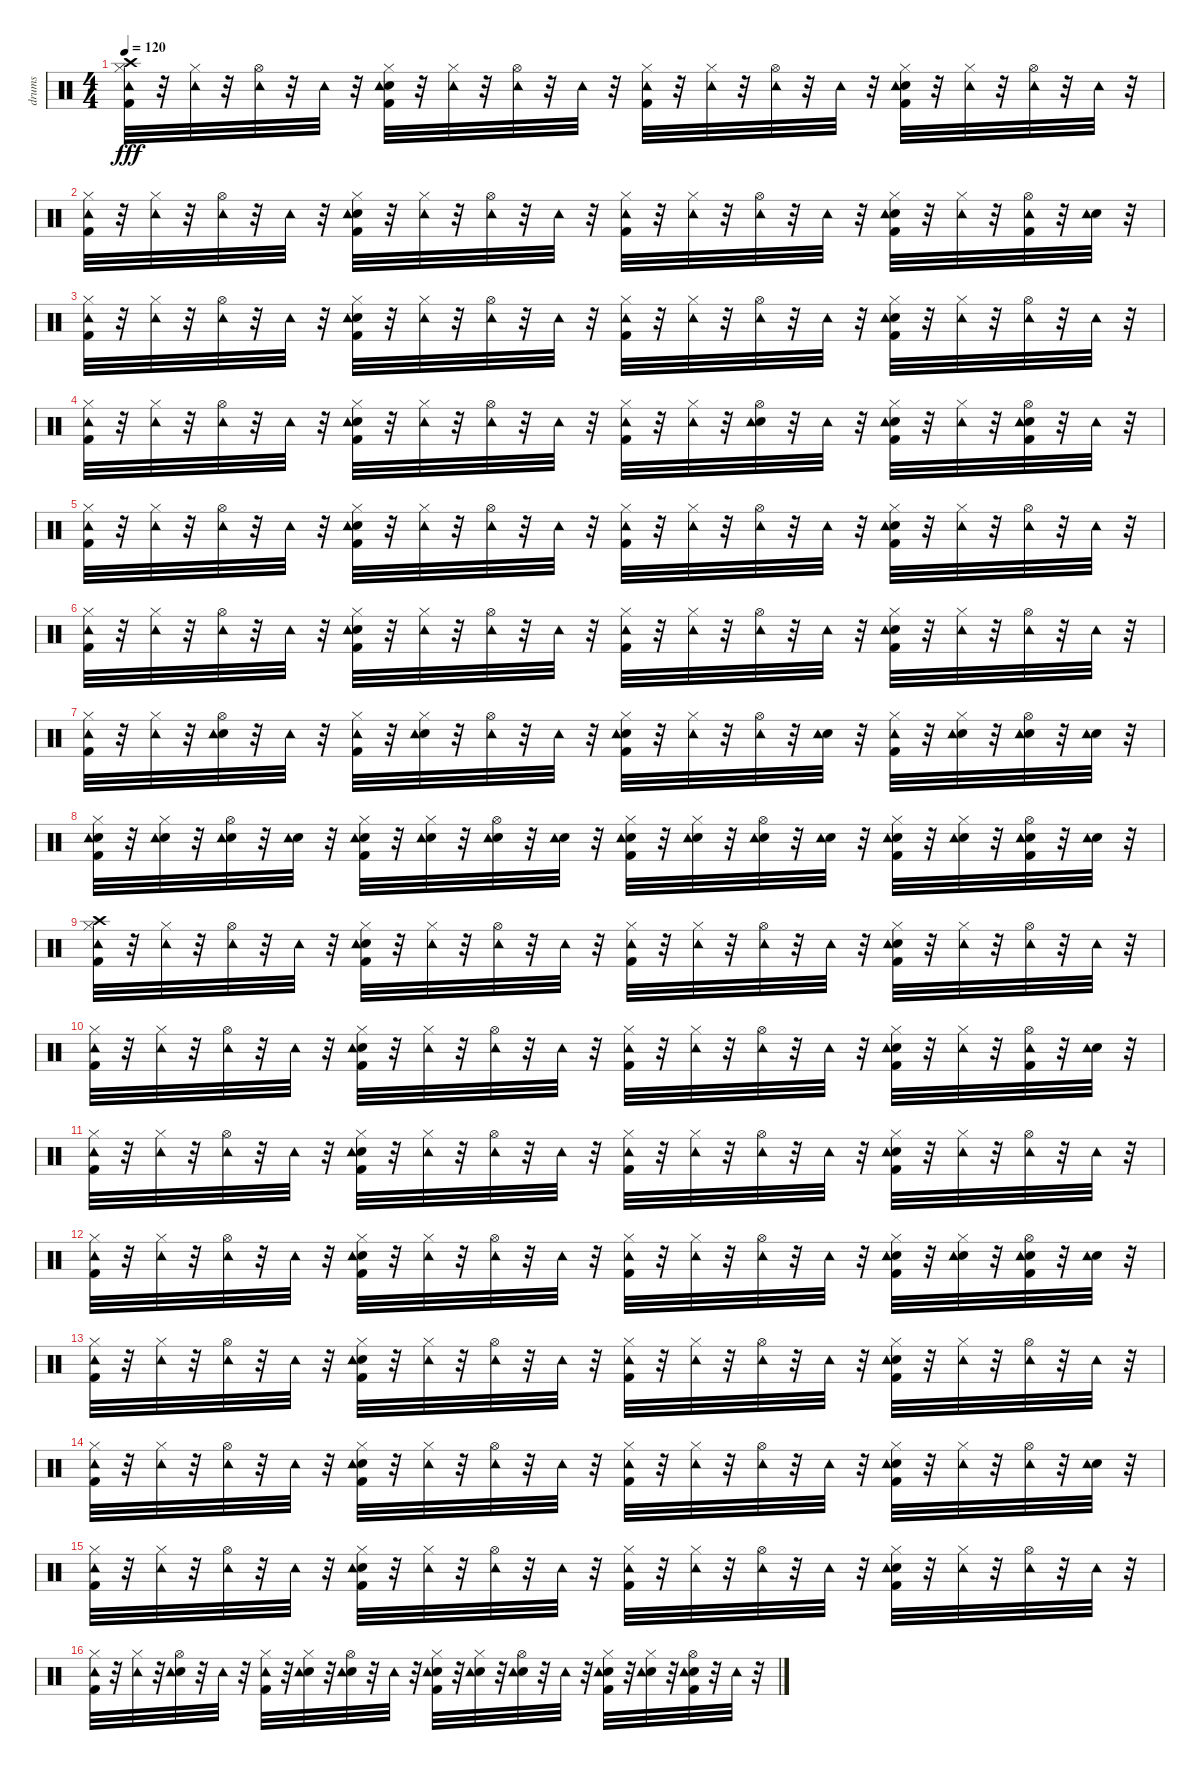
\track ("drums" "drums") {instrument percussion}
\staff {score}
\articulation defaults
\ts (4 4)
\tempo 120
\clef neutral
\ks c
("Crash high (hit)" "Kick (hit) 2" "Hi-Hat (closed)" "Tambourine (hit)").32{dy fff} r.32 ("Hi-Hat (closed)" "Tambourine (hit)").32 r.32 ("Hi-Hat (open)" "Tambourine (hit)").32 r.32 "Tambourine (hit)".32 r.32 ("Snare (hit) 2" "Kick (hit) 2" "Hi-Hat (closed)" "Tambourine (hit)").32 r.32 ("Hi-Hat (closed)" "Tambourine (hit)").32 r.32 ("Hi-Hat (open)" "Tambourine (hit)").32 r.32 "Tambourine (hit)".32 r.32 ("Kick (hit) 2" "Hi-Hat (closed)" "Tambourine (hit)").32 r.32 ("Hi-Hat (closed)" "Tambourine (hit)").32 r.32 ("Hi-Hat (open)" "Tambourine (hit)").32 r.32 "Tambourine (hit)".32 r.32 ("Snare (hit) 2" "Kick (hit) 2" "Hi-Hat (closed)" "Tambourine (hit)").32 r.32 ("Hi-Hat (closed)" "Tambourine (hit)").32 r.32 ("Hi-Hat (open)" "Tambourine (hit)").32 r.32 "Tambourine (hit)".32 r.32 |
("Kick (hit) 2" "Hi-Hat (closed)" "Tambourine (hit)").32 r.32 ("Hi-Hat (closed)" "Tambourine (hit)").32 r.32 ("Hi-Hat (open)" "Tambourine (hit)").32 r.32 "Tambourine (hit)".32 r.32 ("Snare (hit) 2" "Kick (hit) 2" "Hi-Hat (closed)" "Tambourine (hit)").32 r.32 ("Hi-Hat (closed)" "Tambourine (hit)").32 r.32 ("Hi-Hat (open)" "Tambourine (hit)").32 r.32 "Tambourine (hit)".32 r.32 ("Kick (hit) 2" "Hi-Hat (closed)" "Tambourine (hit)").32 r.32 ("Hi-Hat (closed)" "Tambourine (hit)").32 r.32 ("Hi-Hat (open)" "Tambourine (hit)").32 r.32 "Tambourine (hit)".32 r.32 ("Snare (hit) 2" "Kick (hit) 2" "Hi-Hat (closed)" "Tambourine (hit)").32 r.32 ("Hi-Hat (closed)" "Tambourine (hit)").32 r.32 ("Kick (hit) 2" "Hi-Hat (open)" "Tambourine (hit)").32 r.32 ("Snare (hit) 2" "Tambourine (hit)").32 r.32 |
("Kick (hit) 2" "Hi-Hat (closed)" "Tambourine (hit)").32 r.32 ("Hi-Hat (closed)" "Tambourine (hit)").32 r.32 ("Hi-Hat (open)" "Tambourine (hit)").32 r.32 "Tambourine (hit)".32 r.32 ("Snare (hit) 2" "Kick (hit) 2" "Hi-Hat (closed)" "Tambourine (hit)").32 r.32 ("Hi-Hat (closed)" "Tambourine (hit)").32 r.32 ("Hi-Hat (open)" "Tambourine (hit)").32 r.32 "Tambourine (hit)".32 r.32 ("Kick (hit) 2" "Hi-Hat (closed)" "Tambourine (hit)").32 r.32 ("Hi-Hat (closed)" "Tambourine (hit)").32 r.32 ("Hi-Hat (open)" "Tambourine (hit)").32 r.32 "Tambourine (hit)".32 r.32 ("Snare (hit) 2" "Kick (hit) 2" "Hi-Hat (closed)" "Tambourine (hit)").32 r.32 ("Hi-Hat (closed)" "Tambourine (hit)").32 r.32 ("Hi-Hat (open)" "Tambourine (hit)").32 r.32 "Tambourine (hit)".32 r.32 |
("Kick (hit) 2" "Hi-Hat (closed)" "Tambourine (hit)").32 r.32 ("Hi-Hat (closed)" "Tambourine (hit)").32 r.32 ("Hi-Hat (open)" "Tambourine (hit)").32 r.32 "Tambourine (hit)".32 r.32 ("Snare (hit) 2" "Kick (hit) 2" "Hi-Hat (closed)" "Tambourine (hit)").32 r.32 ("Hi-Hat (closed)" "Tambourine (hit)").32 r.32 ("Hi-Hat (open)" "Tambourine (hit)").32 r.32 "Tambourine (hit)".32 r.32 ("Kick (hit) 2" "Hi-Hat (closed)" "Tambourine (hit)").32 r.32 ("Hi-Hat (closed)" "Tambourine (hit)").32 r.32 ("Snare (hit) 2" "Hi-Hat (open)" "Tambourine (hit)").32 r.32 "Tambourine (hit)".32 r.32 ("Snare (hit) 2" "Kick (hit) 2" "Hi-Hat (closed)" "Tambourine (hit)").32 r.32 ("Hi-Hat (closed)" "Tambourine (hit)").32 r.32 ("Kick (hit) 2" "Snare (hit) 2" "Hi-Hat (open)" "Tambourine (hit)").32 r.32 "Tambourine (hit)".32 r.32 |
("Kick (hit) 2" "Hi-Hat (closed)" "Tambourine (hit)").32 r.32 ("Hi-Hat (closed)" "Tambourine (hit)").32 r.32 ("Hi-Hat (open)" "Tambourine (hit)").32 r.32 "Tambourine (hit)".32 r.32 ("Snare (hit) 2" "Kick (hit) 2" "Hi-Hat (closed)" "Tambourine (hit)").32 r.32 ("Hi-Hat (closed)" "Tambourine (hit)").32 r.32 ("Hi-Hat (open)" "Tambourine (hit)").32 r.32 "Tambourine (hit)".32 r.32 ("Kick (hit) 2" "Hi-Hat (closed)" "Tambourine (hit)").32 r.32 ("Hi-Hat (closed)" "Tambourine (hit)").32 r.32 ("Hi-Hat (open)" "Tambourine (hit)").32 r.32 "Tambourine (hit)".32 r.32 ("Snare (hit) 2" "Kick (hit) 2" "Hi-Hat (closed)" "Tambourine (hit)").32 r.32 ("Hi-Hat (closed)" "Tambourine (hit)").32 r.32 ("Hi-Hat (open)" "Tambourine (hit)").32 r.32 "Tambourine (hit)".32 r.32 |
("Kick (hit) 2" "Hi-Hat (closed)" "Tambourine (hit)").32 r.32 ("Hi-Hat (closed)" "Tambourine (hit)").32 r.32 ("Hi-Hat (open)" "Tambourine (hit)").32 r.32 "Tambourine (hit)".32 r.32 ("Snare (hit) 2" "Kick (hit) 2" "Hi-Hat (closed)" "Tambourine (hit)").32 r.32 ("Hi-Hat (closed)" "Tambourine (hit)").32 r.32 ("Hi-Hat (open)" "Tambourine (hit)").32 r.32 "Tambourine (hit)".32 r.32 ("Kick (hit) 2" "Hi-Hat (closed)" "Tambourine (hit)").32 r.32 ("Hi-Hat (closed)" "Tambourine (hit)").32 r.32 ("Hi-Hat (open)" "Tambourine (hit)").32 r.32 "Tambourine (hit)".32 r.32 ("Snare (hit) 2" "Kick (hit) 2" "Hi-Hat (closed)" "Tambourine (hit)").32 r.32 ("Hi-Hat (closed)" "Tambourine (hit)").32 r.32 ("Hi-Hat (open)" "Tambourine (hit)").32 r.32 "Tambourine (hit)".32 r.32 |
("Kick (hit) 2" "Hi-Hat (closed)" "Tambourine (hit)").32 r.32 ("Hi-Hat (closed)" "Tambourine (hit)").32 r.32 ("Snare (hit) 2" "Hi-Hat (open)" "Tambourine (hit)").32 r.32 "Tambourine (hit)".32 r.32 ("Kick (hit) 2" "Hi-Hat (closed)" "Tambourine (hit)").32 r.32 ("Snare (hit) 2" "Hi-Hat (closed)" "Tambourine (hit)").32 r.32 ("Hi-Hat (open)" "Tambourine (hit)").32 r.32 "Tambourine (hit)".32 r.32 ("Kick (hit) 2" "Snare (hit) 2" "Hi-Hat (closed)" "Tambourine (hit)").32 r.32 ("Hi-Hat (closed)" "Tambourine (hit)").32 r.32 ("Hi-Hat (open)" "Tambourine (hit)").32 r.32 ("Snare (hit) 2" "Tambourine (hit)").32 r.32 ("Kick (hit) 2" "Hi-Hat (closed)" "Tambourine (hit)").32 r.32 ("Snare (hit) 2" "Hi-Hat (closed)" "Tambourine (hit)").32 r.32 ("Snare (hit) 2" "Hi-Hat (open)" "Tambourine (hit)").32 r.32 ("Snare (hit) 2" "Tambourine (hit)").32 r.32 |
("Kick (hit) 2" "Snare (hit) 2" "Hi-Hat (closed)" "Tambourine (hit)").32 r.32 ("Snare (hit) 2" "Hi-Hat (closed)" "Tambourine (hit)").32 r.32 ("Snare (hit) 2" "Hi-Hat (open)" "Tambourine (hit)").32 r.32 ("Snare (hit) 2" "Tambourine (hit)").32 r.32 ("Snare (hit) 2" "Kick (hit) 2" "Hi-Hat (closed)" "Tambourine (hit)").32 r.32 ("Snare (hit) 2" "Hi-Hat (closed)" "Tambourine (hit)").32 r.32 ("Snare (hit) 2" "Hi-Hat (open)" "Tambourine (hit)").32 r.32 ("Snare (hit) 2" "Tambourine (hit)").32 r.32 ("Kick (hit) 2" "Snare (hit) 2" "Hi-Hat (closed)" "Tambourine (hit)").32 r.32 ("Snare (hit) 2" "Hi-Hat (closed)" "Tambourine (hit)").32 r.32 ("Snare (hit) 2" "Hi-Hat (open)" "Tambourine (hit)").32 r.32 ("Snare (hit) 2" "Tambourine (hit)").32 r.32 ("Snare (hit) 2" "Kick (hit) 2" "Hi-Hat (closed)" "Tambourine (hit)").32 r.32 ("Snare (hit) 2" "Hi-Hat (closed)" "Tambourine (hit)").32 r.32 ("Kick (hit) 2" "Snare (hit) 2" "Hi-Hat (open)" "Tambourine (hit)").32 r.32 ("Snare (hit) 2" "Tambourine (hit)").32 r.32 |
("Crash high (hit)" "Kick (hit) 2" "Hi-Hat (closed)" "Tambourine (hit)").32 r.32 ("Hi-Hat (closed)" "Tambourine (hit)").32 r.32 ("Hi-Hat (open)" "Tambourine (hit)").32 r.32 "Tambourine (hit)".32 r.32 ("Snare (hit) 2" "Kick (hit) 2" "Hi-Hat (closed)" "Tambourine (hit)").32 r.32 ("Hi-Hat (closed)" "Tambourine (hit)").32 r.32 ("Hi-Hat (open)" "Tambourine (hit)").32 r.32 "Tambourine (hit)".32 r.32 ("Kick (hit) 2" "Hi-Hat (closed)" "Tambourine (hit)").32 r.32 ("Hi-Hat (closed)" "Tambourine (hit)").32 r.32 ("Hi-Hat (open)" "Tambourine (hit)").32 r.32 "Tambourine (hit)".32 r.32 ("Snare (hit) 2" "Kick (hit) 2" "Hi-Hat (closed)" "Tambourine (hit)").32 r.32 ("Hi-Hat (closed)" "Tambourine (hit)").32 r.32 ("Hi-Hat (open)" "Tambourine (hit)").32 r.32 "Tambourine (hit)".32 r.32 |
("Kick (hit) 2" "Hi-Hat (closed)" "Tambourine (hit)").32 r.32 ("Hi-Hat (closed)" "Tambourine (hit)").32 r.32 ("Hi-Hat (open)" "Tambourine (hit)").32 r.32 "Tambourine (hit)".32 r.32 ("Snare (hit) 2" "Kick (hit) 2" "Hi-Hat (closed)" "Tambourine (hit)").32 r.32 ("Hi-Hat (closed)" "Tambourine (hit)").32 r.32 ("Hi-Hat (open)" "Tambourine (hit)").32 r.32 "Tambourine (hit)".32 r.32 ("Kick (hit) 2" "Hi-Hat (closed)" "Tambourine (hit)").32 r.32 ("Hi-Hat (closed)" "Tambourine (hit)").32 r.32 ("Hi-Hat (open)" "Tambourine (hit)").32 r.32 "Tambourine (hit)".32 r.32 ("Snare (hit) 2" "Kick (hit) 2" "Hi-Hat (closed)" "Tambourine (hit)").32 r.32 ("Hi-Hat (closed)" "Tambourine (hit)").32 r.32 ("Kick (hit) 2" "Hi-Hat (open)" "Tambourine (hit)").32 r.32 ("Snare (hit) 2" "Tambourine (hit)").32 r.32 |
("Kick (hit) 2" "Hi-Hat (closed)" "Tambourine (hit)").32 r.32 ("Hi-Hat (closed)" "Tambourine (hit)").32 r.32 ("Hi-Hat (open)" "Tambourine (hit)").32 r.32 "Tambourine (hit)".32 r.32 ("Snare (hit) 2" "Kick (hit) 2" "Hi-Hat (closed)" "Tambourine (hit)").32 r.32 ("Hi-Hat (closed)" "Tambourine (hit)").32 r.32 ("Hi-Hat (open)" "Tambourine (hit)").32 r.32 "Tambourine (hit)".32 r.32 ("Kick (hit) 2" "Hi-Hat (closed)" "Tambourine (hit)").32 r.32 ("Hi-Hat (closed)" "Tambourine (hit)").32 r.32 ("Hi-Hat (open)" "Tambourine (hit)").32 r.32 "Tambourine (hit)".32 r.32 ("Snare (hit) 2" "Kick (hit) 2" "Hi-Hat (closed)" "Tambourine (hit)").32 r.32 ("Hi-Hat (closed)" "Tambourine (hit)").32 r.32 ("Hi-Hat (open)" "Tambourine (hit)").32 r.32 "Tambourine (hit)".32 r.32 |
("Kick (hit) 2" "Hi-Hat (closed)" "Tambourine (hit)").32 r.32 ("Hi-Hat (closed)" "Tambourine (hit)").32 r.32 ("Hi-Hat (open)" "Tambourine (hit)").32 r.32 "Tambourine (hit)".32 r.32 ("Snare (hit) 2" "Kick (hit) 2" "Hi-Hat (closed)" "Tambourine (hit)").32 r.32 ("Hi-Hat (closed)" "Tambourine (hit)").32 r.32 ("Hi-Hat (open)" "Tambourine (hit)").32 r.32 "Tambourine (hit)".32 r.32 ("Kick (hit) 2" "Hi-Hat (closed)" "Tambourine (hit)").32 r.32 ("Hi-Hat (closed)" "Tambourine (hit)").32 r.32 ("Hi-Hat (open)" "Tambourine (hit)").32 r.32 "Tambourine (hit)".32 r.32 ("Snare (hit) 2" "Kick (hit) 2" "Hi-Hat (closed)" "Tambourine (hit)").32 r.32 ("Snare (hit) 2" "Hi-Hat (closed)" "Tambourine (hit)").32 r.32 ("Kick (hit) 2" "Snare (hit) 2" "Hi-Hat (open)" "Tambourine (hit)").32 r.32 ("Snare (hit) 2" "Tambourine (hit)").32 r.32 |
("Kick (hit) 2" "Hi-Hat (closed)" "Tambourine (hit)").32 r.32 ("Hi-Hat (closed)" "Tambourine (hit)").32 r.32 ("Hi-Hat (open)" "Tambourine (hit)").32 r.32 "Tambourine (hit)".32 r.32 ("Snare (hit) 2" "Kick (hit) 2" "Hi-Hat (closed)" "Tambourine (hit)").32 r.32 ("Hi-Hat (closed)" "Tambourine (hit)").32 r.32 ("Hi-Hat (open)" "Tambourine (hit)").32 r.32 "Tambourine (hit)".32 r.32 ("Kick (hit) 2" "Hi-Hat (closed)" "Tambourine (hit)").32 r.32 ("Hi-Hat (closed)" "Tambourine (hit)").32 r.32 ("Hi-Hat (open)" "Tambourine (hit)").32 r.32 "Tambourine (hit)".32 r.32 ("Snare (hit) 2" "Kick (hit) 2" "Hi-Hat (closed)" "Tambourine (hit)").32 r.32 ("Hi-Hat (closed)" "Tambourine (hit)").32 r.32 ("Hi-Hat (open)" "Tambourine (hit)").32 r.32 "Tambourine (hit)".32 r.32 |
("Kick (hit) 2" "Hi-Hat (closed)" "Tambourine (hit)").32 r.32 ("Hi-Hat (closed)" "Tambourine (hit)").32 r.32 ("Hi-Hat (open)" "Tambourine (hit)").32 r.32 "Tambourine (hit)".32 r.32 ("Snare (hit) 2" "Kick (hit) 2" "Hi-Hat (closed)" "Tambourine (hit)").32 r.32 ("Hi-Hat (closed)" "Tambourine (hit)").32 r.32 ("Hi-Hat (open)" "Tambourine (hit)").32 r.32 "Tambourine (hit)".32 r.32 ("Kick (hit) 2" "Hi-Hat (closed)" "Tambourine (hit)").32 r.32 ("Hi-Hat (closed)" "Tambourine (hit)").32 r.32 ("Hi-Hat (open)" "Tambourine (hit)").32 r.32 "Tambourine (hit)".32 r.32 ("Snare (hit) 2" "Kick (hit) 2" "Hi-Hat (closed)" "Tambourine (hit)").32 r.32 ("Hi-Hat (closed)" "Tambourine (hit)").32 r.32 ("Hi-Hat (open)" "Tambourine (hit)").32 r.32 ("Snare (hit) 2" "Tambourine (hit)").32 r.32 |
("Kick (hit) 2" "Hi-Hat (closed)" "Tambourine (hit)").32 r.32 ("Hi-Hat (closed)" "Tambourine (hit)").32 r.32 ("Hi-Hat (open)" "Tambourine (hit)").32 r.32 "Tambourine (hit)".32 r.32 ("Snare (hit) 2" "Kick (hit) 2" "Hi-Hat (closed)" "Tambourine (hit)").32 r.32 ("Hi-Hat (closed)" "Tambourine (hit)").32 r.32 ("Hi-Hat (open)" "Tambourine (hit)").32 r.32 "Tambourine (hit)".32 r.32 ("Kick (hit) 2" "Hi-Hat (closed)" "Tambourine (hit)").32 r.32 ("Hi-Hat (closed)" "Tambourine (hit)").32 r.32 ("Hi-Hat (open)" "Tambourine (hit)").32 r.32 "Tambourine (hit)".32 r.32 ("Snare (hit) 2" "Kick (hit) 2" "Hi-Hat (closed)" "Tambourine (hit)").32 r.32 ("Hi-Hat (closed)" "Tambourine (hit)").32 r.32 ("Hi-Hat (open)" "Tambourine (hit)").32 r.32 "Tambourine (hit)".32 r.32 |
("Kick (hit) 2" "Hi-Hat (closed)" "Tambourine (hit)").32 r.32 ("Hi-Hat (closed)" "Tambourine (hit)").32 r.32 ("Snare (hit) 2" "Hi-Hat (open)" "Tambourine (hit)").32 r.32 "Tambourine (hit)".32 r.32 ("Kick (hit) 2" "Hi-Hat (closed)" "Tambourine (hit)").32 r.32 ("Snare (hit) 2" "Hi-Hat (closed)" "Tambourine (hit)").32 r.32 ("Snare (hit) 2" "Hi-Hat (open)" "Tambourine (hit)").32 r.32 "Tambourine (hit)".32 r.32 ("Kick (hit) 2" "Snare (hit) 2" "Hi-Hat (closed)" "Tambourine (hit)").32 r.32 ("Snare (hit) 2" "Hi-Hat (closed)" "Tambourine (hit)").32 r.32 ("Snare (hit) 2" "Hi-Hat (open)" "Tambourine (hit)").32 r.32 "Tambourine (hit)".32 r.32 ("Snare (hit) 2" "Kick (hit) 2" "Hi-Hat (closed)" "Tambourine (hit)").32 r.32 ("Snare (hit) 2" "Hi-Hat (closed)" "Tambourine (hit)").32 r.32 ("Kick (hit) 2" "Snare (hit) 2" "Hi-Hat (open)" "Tambourine (hit)").32 r.32 "Tambourine (hit)".32 r.32
